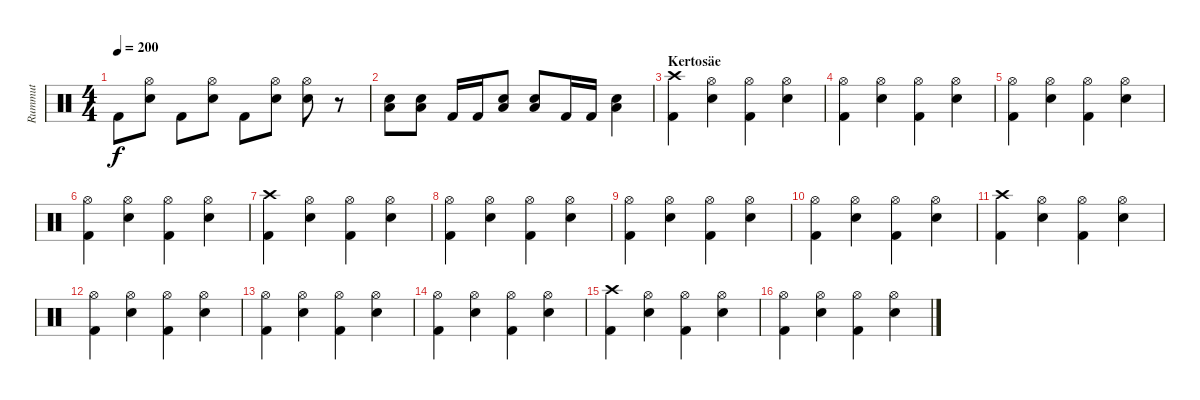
\track ("Rummut" "Rummut") {instrument percussion}
\staff {score}
\articulation defaults
\ts (4 4)
\tempo 200
\clef neutral
\ks c "Kick (hit) 2".8{dy f}
("Hi-Hat (open)" "Electric Snare (hit)").8 "Kick (hit) 2".8 ("Hi-Hat (open)" "Electric Snare (hit)").8 "Kick (hit) 2".8 ("Hi-Hat (open)" "Electric Snare (hit)").8 ("Hi-Hat (open)" "Electric Snare (hit)").8 r.8 |
("Electric Snare (hit)" "Low Floor Tom (hit)").8 ("Electric Snare (hit)" "Low Floor Tom (hit)").8 "Kick (hit) 2".16 "Kick (hit) 2".16 ("Electric Snare (hit)" "Low Floor Tom (hit)").8 ("Electric Snare (hit)" "Low Floor Tom (hit)").8 "Kick (hit) 2".16 "Kick (hit) 2".16 ("Electric Snare (hit)" "Low Floor Tom (hit)").4 |
\section ("" "Kertosäe")
("Crash high (hit)" "Kick (hit) 2").4 ("Hi-Hat (open)" "Electric Snare (hit)").4 ("Hi-Hat (open)" "Kick (hit) 2").4 ("Hi-Hat (open)" "Electric Snare (hit)").4 |
("Hi-Hat (open)" "Kick (hit) 2").4 ("Hi-Hat (open)" "Electric Snare (hit)").4 ("Hi-Hat (open)" "Kick (hit) 2").4 ("Hi-Hat (open)" "Electric Snare (hit)").4 |
("Hi-Hat (open)" "Kick (hit) 2").4 ("Hi-Hat (open)" "Electric Snare (hit)").4 ("Hi-Hat (open)" "Kick (hit) 2").4 ("Hi-Hat (open)" "Electric Snare (hit)").4 |
("Hi-Hat (open)" "Kick (hit) 2").4 ("Hi-Hat (open)" "Electric Snare (hit)").4 ("Hi-Hat (open)" "Kick (hit) 2").4 ("Hi-Hat (open)" "Electric Snare (hit)").4 |
("Crash high (hit)" "Kick (hit) 2").4 ("Hi-Hat (open)" "Electric Snare (hit)").4 ("Hi-Hat (open)" "Kick (hit) 2").4 ("Hi-Hat (open)" "Electric Snare (hit)").4 |
("Hi-Hat (open)" "Kick (hit) 2").4 ("Hi-Hat (open)" "Electric Snare (hit)").4 ("Hi-Hat (open)" "Kick (hit) 2").4 ("Hi-Hat (open)" "Electric Snare (hit)").4 |
("Hi-Hat (open)" "Kick (hit) 2").4 ("Hi-Hat (open)" "Electric Snare (hit)").4 ("Hi-Hat (open)" "Kick (hit) 2").4 ("Hi-Hat (open)" "Electric Snare (hit)").4 |
("Hi-Hat (open)" "Kick (hit) 2").4 ("Hi-Hat (open)" "Electric Snare (hit)").4 ("Hi-Hat (open)" "Kick (hit) 2").4 ("Hi-Hat (open)" "Electric Snare (hit)").4 |
("Crash high (hit)" "Kick (hit) 2").4 ("Hi-Hat (open)" "Electric Snare (hit)").4 ("Hi-Hat (open)" "Kick (hit) 2").4 ("Hi-Hat (open)" "Electric Snare (hit)").4 |
("Hi-Hat (open)" "Kick (hit) 2").4 ("Hi-Hat (open)" "Electric Snare (hit)").4 ("Hi-Hat (open)" "Kick (hit) 2").4 ("Hi-Hat (open)" "Electric Snare (hit)").4 |
("Hi-Hat (open)" "Kick (hit) 2").4 ("Hi-Hat (open)" "Electric Snare (hit)").4 ("Hi-Hat (open)" "Kick (hit) 2").4 ("Hi-Hat (open)" "Electric Snare (hit)").4 |
("Hi-Hat (open)" "Kick (hit) 2").4 ("Hi-Hat (open)" "Electric Snare (hit)").4 ("Hi-Hat (open)" "Kick (hit) 2").4 ("Hi-Hat (open)" "Electric Snare (hit)").4 |
("Crash high (hit)" "Kick (hit) 2").4 ("Hi-Hat (open)" "Electric Snare (hit)").4 ("Hi-Hat (open)" "Kick (hit) 2").4 ("Hi-Hat (open)" "Electric Snare (hit)").4 |
("Hi-Hat (open)" "Kick (hit) 2").4 ("Hi-Hat (open)" "Electric Snare (hit)").4 ("Hi-Hat (open)" "Kick (hit) 2").4 ("Hi-Hat (open)" "Electric Snare (hit)").4
